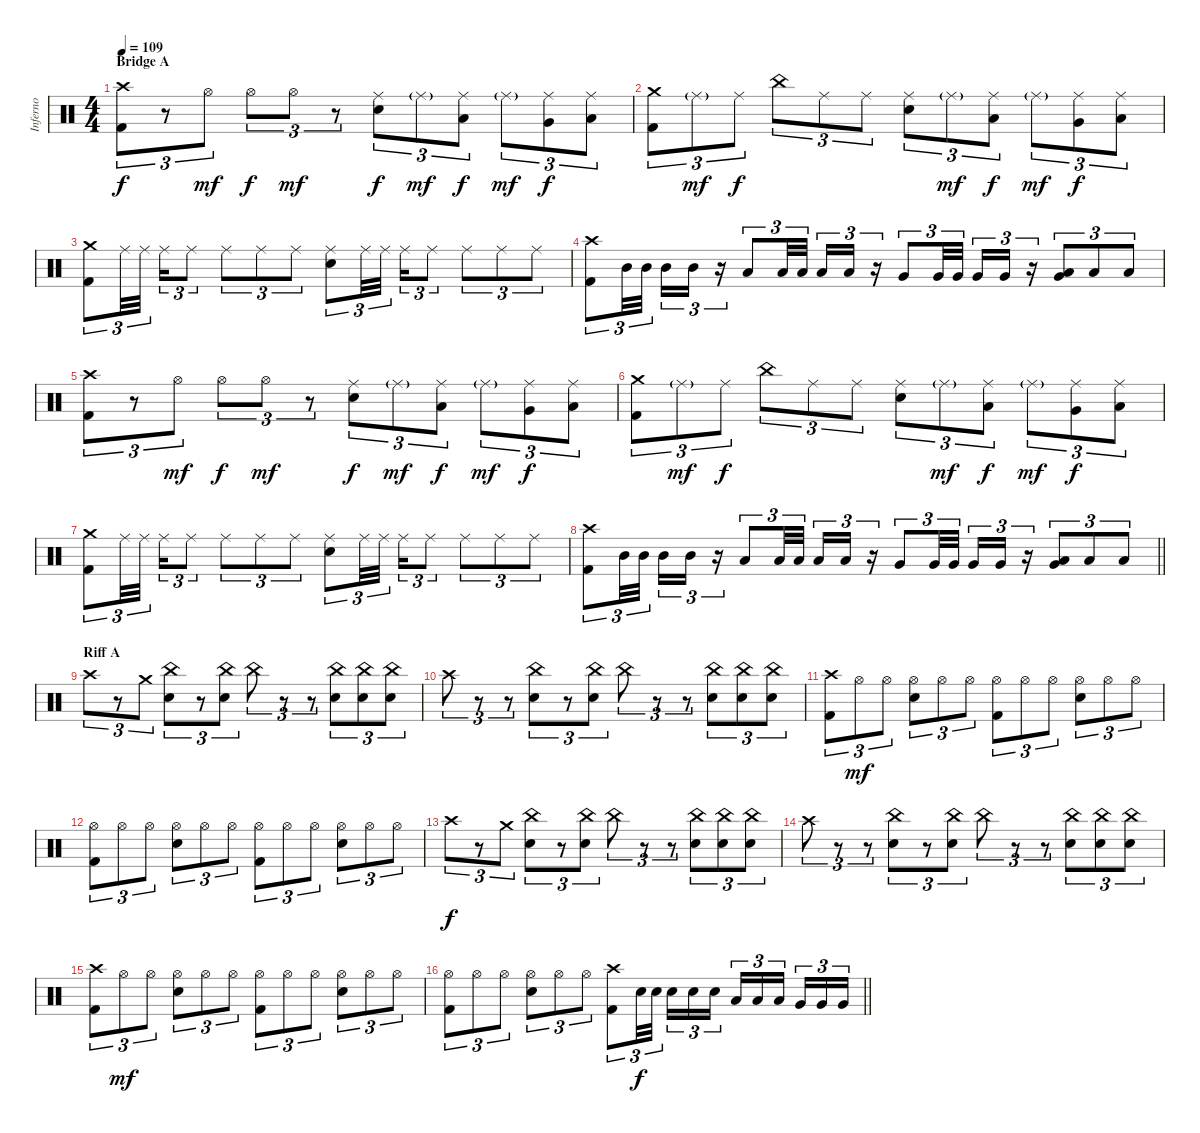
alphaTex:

\track ("Inferno" "Inferno") {instrument percussion}
\staff {score}
\articulation defaults
\ts (4 4)
\section ("" "Bridge A")
\tempo 109
\clef neutral
\ks c
("Crash high (hit)" "Kick (hit) 2").8{tu (3 2) dy f} r.8{tu (3 2)} "Hi-Hat (open)".8{tu (3 2) dy mf} "Hi-Hat (open)".8{tu (3 2) dy f} "Hi-Hat (open)".8{tu (3 2) dy mf} r.8{tu (3 2)} ("Ride (middle)" "Snare (hit) 2").8{tu (3 2) dy f} "Ride (middle)"{g}.8{tu (3 2) dy mf} ("Ride (middle)" "Low Tom (hit)").8{tu (3 2) dy f} "Ride (middle)"{g}.8{tu (3 2) dy mf} ("Ride (middle)" "Very Low Tom (hit)").8{tu (3 2) dy f} ("Ride (middle)" "Low Floor Tom (hit)").8{tu (3 2)} |
("Crash medium (hit)" "Kick (hit) 2").8{tu (3 2)} "Ride (middle)"{g}.8{tu (3 2) dy mf} "Ride (middle)".8{tu (3 2) dy f} "China (hit)".8{tu (3 2)} "Ride (middle)".8{tu (3 2)} "Ride (middle)".8{tu (3 2)} ("Ride (middle)" "Snare (hit) 2").8{tu (3 2)} "Ride (middle)"{g}.8{tu (3 2) dy mf} ("Ride (middle)" "Low Tom (hit)").8{tu (3 2) dy f} "Ride (middle)"{g}.8{tu (3 2) dy mf} ("Ride (middle)" "Very Low Tom (hit)").8{tu (3 2) dy f} ("Ride (middle)" "Low Floor Tom (hit)").8{tu (3 2)} |
("Crash medium (hit)" "Kick (hit) 2").8{tu (3 2)} "Ride (middle)".32{tu (3 2)} "Ride (middle)".32{tu (3 2) beam splitsecondary} "Ride (middle)".16{tu (3 2)} "Ride (middle)".8{tu (3 2)} "Ride (middle)".8{tu (3 2)} "Ride (middle)".8{tu (3 2)} "Ride (middle)".8{tu (3 2)} ("Ride (middle)" "Snare (hit) 2").8{tu (3 2)} "Ride (middle)".32{tu (3 2)} "Ride (middle)".32{tu (3 2) beam splitsecondary} "Ride (middle)".16{tu (3 2)} "Ride (middle)".8{tu (3 2)} "Ride (middle)".8{tu (3 2)} "Ride (middle)".8{tu (3 2)} "Ride (middle)".8{tu (3 2)} |
("Crash high (hit)" "Kick (hit) 2").8{tu (3 2)} "Mid Tom (hit)".32{tu (3 2)} "Mid Tom (hit)".32{tu (3 2) beam splitsecondary} "Mid Tom (hit)".16{tu (3 2)} "Mid Tom (hit)".16{tu (3 2)} r.16{tu (3 2)} "Low Tom (hit)".8{tu (3 2)} "Low Tom (hit)".32{tu (3 2)} "Low Tom (hit)".32{tu (3 2) beam splitsecondary} "Low Tom (hit)".16{tu (3 2)} "Low Tom (hit)".16{tu (3 2)} r.16{tu (3 2)} "Very Low Tom (hit)".8{tu (3 2)} "Very Low Tom (hit)".32{tu (3 2)} "Very Low Tom (hit)".32{tu (3 2) beam splitsecondary} "Very Low Tom (hit)".16{tu (3 2)} "Very Low Tom (hit)".16{tu (3 2)} r.16{tu (3 2)} ("Very Low Tom (hit)" "Low Floor Tom (hit)").8{tu (3 2)} "Low Floor Tom (hit)".8{tu (3 2)} "Low Floor Tom (hit)".8{tu (3 2)} |
("Crash high (hit)" "Kick (hit) 2").8{tu (3 2)} r.8{tu (3 2)} "Hi-Hat (open)".8{tu (3 2) dy mf} "Hi-Hat (open)".8{tu (3 2) dy f} "Hi-Hat (open)".8{tu (3 2) dy mf} r.8{tu (3 2)} ("Ride (middle)" "Snare (hit) 2").8{tu (3 2) dy f} "Ride (middle)"{g}.8{tu (3 2) dy mf} ("Ride (middle)" "Low Tom (hit)").8{tu (3 2) dy f} "Ride (middle)"{g}.8{tu (3 2) dy mf} ("Ride (middle)" "Very Low Tom (hit)").8{tu (3 2) dy f} ("Ride (middle)" "Low Floor Tom (hit)").8{tu (3 2)} |
("Crash medium (hit)" "Kick (hit) 2").8{tu (3 2)} "Ride (middle)"{g}.8{tu (3 2) dy mf} "Ride (middle)".8{tu (3 2) dy f} "China (hit)".8{tu (3 2)} "Ride (middle)".8{tu (3 2)} "Ride (middle)".8{tu (3 2)} ("Ride (middle)" "Snare (hit) 2").8{tu (3 2)} "Ride (middle)"{g}.8{tu (3 2) dy mf} ("Ride (middle)" "Low Tom (hit)").8{tu (3 2) dy f} "Ride (middle)"{g}.8{tu (3 2) dy mf} ("Ride (middle)" "Very Low Tom (hit)").8{tu (3 2) dy f} ("Ride (middle)" "Low Floor Tom (hit)").8{tu (3 2)} |
("Crash medium (hit)" "Kick (hit) 2").8{tu (3 2)} "Ride (middle)".32{tu (3 2)} "Ride (middle)".32{tu (3 2) beam splitsecondary} "Ride (middle)".16{tu (3 2)} "Ride (middle)".8{tu (3 2)} "Ride (middle)".8{tu (3 2)} "Ride (middle)".8{tu (3 2)} "Ride (middle)".8{tu (3 2)} ("Ride (middle)" "Snare (hit) 2").8{tu (3 2)} "Ride (middle)".32{tu (3 2)} "Ride (middle)".32{tu (3 2) beam splitsecondary} "Ride (middle)".16{tu (3 2)} "Ride (middle)".8{tu (3 2)} "Ride (middle)".8{tu (3 2)} "Ride (middle)".8{tu (3 2)} "Ride (middle)".8{tu (3 2)} |
\barLineRight lightlight
("Crash high (hit)" "Kick (hit) 2").8{tu (3 2)} "Mid Tom (hit)".32{tu (3 2)} "Mid Tom (hit)".32{tu (3 2) beam splitsecondary} "Mid Tom (hit)".16{tu (3 2)} "Mid Tom (hit)".16{tu (3 2)} r.16{tu (3 2)} "Low Tom (hit)".8{tu (3 2)} "Low Tom (hit)".32{tu (3 2)} "Low Tom (hit)".32{tu (3 2) beam splitsecondary} "Low Tom (hit)".16{tu (3 2)} "Low Tom (hit)".16{tu (3 2)} r.16{tu (3 2)} "Very Low Tom (hit)".8{tu (3 2)} "Very Low Tom (hit)".32{tu (3 2)} "Very Low Tom (hit)".32{tu (3 2) beam splitsecondary} "Very Low Tom (hit)".16{tu (3 2)} "Very Low Tom (hit)".16{tu (3 2)} r.16{tu (3 2)} ("Very Low Tom (hit)" "Low Floor Tom (hit)").8{tu (3 2)} "Low Floor Tom (hit)".8{tu (3 2)} "Low Floor Tom (hit)".8{tu (3 2)} |
\section ("" "Riff A")
"Crash high (hit)".8{tu (3 2)} r.8{tu (3 2)} "Crash medium (hit)".8{tu (3 2)} ("China (hit)" "Snare (hit) 2").8{tu (3 2)} r.8{tu (3 2)} ("China (hit)" "Snare (hit) 2").8{tu (3 2)} "China (hit)".8{tu (3 2)} r.8{tu (3 2)} r.8{tu (3 2)} ("China (hit)" "Snare (hit) 2").8{tu (3 2)} ("China (hit)" "Snare (hit) 2").8{tu (3 2)} ("China (hit)" "Snare (hit) 2").8{tu (3 2)} |
"Crash high (hit)".8{tu (3 2)} r.8{tu (3 2)} r.8{tu (3 2)} ("China (hit)" "Snare (hit) 2").8{tu (3 2)} r.8{tu (3 2)} ("China (hit)" "Snare (hit) 2").8{tu (3 2)} "China (hit)".8{tu (3 2)} r.8{tu (3 2)} r.8{tu (3 2)} ("China (hit)" "Snare (hit) 2").8{tu (3 2)} ("China (hit)" "Snare (hit) 2").8{tu (3 2)} ("China (hit)" "Snare (hit) 2").8{tu (3 2)} |
("Crash high (hit)" "Kick (hit) 2").8{tu (3 2)} "Hi-Hat (open)".8{tu (3 2) dy mf} "Hi-Hat (open)".8{tu (3 2)} ("Hi-Hat (open)" "Snare (hit) 2").8{tu (3 2)} "Hi-Hat (open)".8{tu (3 2)} "Hi-Hat (open)".8{tu (3 2)} ("Hi-Hat (open)" "Kick (hit) 2").8{tu (3 2)} "Hi-Hat (open)".8{tu (3 2)} "Hi-Hat (open)".8{tu (3 2)} ("Hi-Hat (open)" "Snare (hit) 2").8{tu (3 2)} "Hi-Hat (open)".8{tu (3 2)} "Hi-Hat (open)".8{tu (3 2)} |
("Hi-Hat (open)" "Kick (hit) 2").8{tu (3 2)} "Hi-Hat (open)".8{tu (3 2)} "Hi-Hat (open)".8{tu (3 2)} ("Hi-Hat (open)" "Snare (hit) 2").8{tu (3 2)} "Hi-Hat (open)".8{tu (3 2)} "Hi-Hat (open)".8{tu (3 2)} ("Hi-Hat (open)" "Kick (hit) 2").8{tu (3 2)} "Hi-Hat (open)".8{tu (3 2)} "Hi-Hat (open)".8{tu (3 2)} ("Hi-Hat (open)" "Snare (hit) 2").8{tu (3 2)} "Hi-Hat (open)".8{tu (3 2)} "Hi-Hat (open)".8{tu (3 2)} |
"Crash high (hit)".8{tu (3 2) dy f} r.8{tu (3 2)} "Crash medium (hit)".8{tu (3 2)} ("China (hit)" "Snare (hit) 2").8{tu (3 2)} r.8{tu (3 2)} ("China (hit)" "Snare (hit) 2").8{tu (3 2)} "China (hit)".8{tu (3 2)} r.8{tu (3 2)} r.8{tu (3 2)} ("China (hit)" "Snare (hit) 2").8{tu (3 2)} ("China (hit)" "Snare (hit) 2").8{tu (3 2)} ("China (hit)" "Snare (hit) 2").8{tu (3 2)} |
"Crash high (hit)".8{tu (3 2)} r.8{tu (3 2)} r.8{tu (3 2)} ("China (hit)" "Snare (hit) 2").8{tu (3 2)} r.8{tu (3 2)} ("China (hit)" "Snare (hit) 2").8{tu (3 2)} "China (hit)".8{tu (3 2)} r.8{tu (3 2)} r.8{tu (3 2)} ("China (hit)" "Snare (hit) 2").8{tu (3 2)} ("China (hit)" "Snare (hit) 2").8{tu (3 2)} ("China (hit)" "Snare (hit) 2").8{tu (3 2)} |
("Crash high (hit)" "Kick (hit) 2").8{tu (3 2)} "Hi-Hat (open)".8{tu (3 2) dy mf} "Hi-Hat (open)".8{tu (3 2)} ("Hi-Hat (open)" "Snare (hit) 2").8{tu (3 2)} "Hi-Hat (open)".8{tu (3 2)} "Hi-Hat (open)".8{tu (3 2)} ("Hi-Hat (open)" "Kick (hit) 2").8{tu (3 2)} "Hi-Hat (open)".8{tu (3 2)} "Hi-Hat (open)".8{tu (3 2)} ("Hi-Hat (open)" "Snare (hit) 2").8{tu (3 2)} "Hi-Hat (open)".8{tu (3 2)} "Hi-Hat (open)".8{tu (3 2)} |
\barLineRight lightlight
("Hi-Hat (open)" "Kick (hit) 2").8{tu (3 2)} "Hi-Hat (open)".8{tu (3 2)} "Hi-Hat (open)".8{tu (3 2)} ("Hi-Hat (open)" "Snare (hit) 2").8{tu (3 2)} "Hi-Hat (open)".8{tu (3 2)} "Hi-Hat (open)".8{tu (3 2)} ("Crash high (hit)" "Kick (hit) 2").8{tu (3 2)} "Snare (hit) 2".32{tu (3 2) dy f} "Snare (hit) 2".32{tu (3 2) beam splitsecondary} "Snare (hit) 2".16{tu (3 2)} "Snare (hit) 2".16{tu (3 2)} "Snare (hit) 2".16{tu (3 2)} "Low Tom (hit)".16{tu (3 2)} "Low Tom (hit)".16{tu (3 2)} "Low Tom (hit)".16{tu (3 2) beam splitsecondary} "Very Low Tom (hit)".16{tu (3 2)} "Very Low Tom (hit)".16{tu (3 2)} "Very Low Tom (hit)".16{tu (3 2)}
